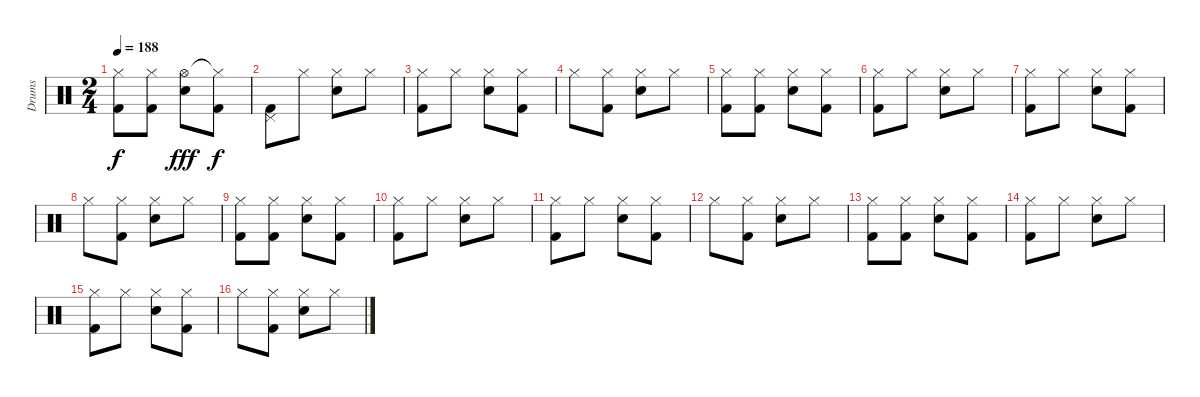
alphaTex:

\track ("Drums" "Drums") {instrument percussion}
\staff {score}
\articulation defaults
\ts (2 4)
\tempo 188
\clef neutral
\ks c
("Hi-Hat (closed)" "Kick (hit) 2").8{dy f} ("Hi-Hat (closed)" "Kick (hit) 2").8 ("Hi-Hat (open)" "Snare (hit) 2").8{dy fff} ("Hi-Hat (closed)"{t} "Kick (hit) 2").8{dy f} |
("Pedal Hi-Hat (hit)" "Kick (hit) 2").8 "Hi-Hat (closed)".8 ("Hi-Hat (closed)" "Snare (hit) 2").8 "Hi-Hat (closed)".8 |
("Hi-Hat (closed)" "Kick (hit) 2").8 "Hi-Hat (closed)".8 ("Hi-Hat (closed)" "Snare (hit) 2").8 ("Hi-Hat (closed)" "Kick (hit) 2").8 |
"Hi-Hat (closed)".8 ("Hi-Hat (closed)" "Kick (hit) 2").8 ("Hi-Hat (closed)" "Snare (hit) 2").8 "Hi-Hat (closed)".8 |
("Hi-Hat (closed)" "Kick (hit) 2").8 ("Hi-Hat (closed)" "Kick (hit) 2").8 ("Hi-Hat (closed)" "Snare (hit) 2").8 ("Hi-Hat (closed)" "Kick (hit) 2").8 |
("Hi-Hat (closed)" "Kick (hit) 2").8 "Hi-Hat (closed)".8 ("Hi-Hat (closed)" "Snare (hit) 2").8 "Hi-Hat (closed)".8 |
("Hi-Hat (closed)" "Kick (hit) 2").8 "Hi-Hat (closed)".8 ("Hi-Hat (closed)" "Snare (hit) 2").8 ("Hi-Hat (closed)" "Kick (hit) 2").8 |
"Hi-Hat (closed)".8 ("Hi-Hat (closed)" "Kick (hit) 2").8 ("Hi-Hat (closed)" "Snare (hit) 2").8 "Hi-Hat (closed)".8 |
("Hi-Hat (closed)" "Kick (hit) 2").8 ("Hi-Hat (closed)" "Kick (hit) 2").8 ("Hi-Hat (closed)" "Snare (hit) 2").8 ("Hi-Hat (closed)" "Kick (hit) 2").8 |
("Hi-Hat (closed)" "Kick (hit) 2").8 "Hi-Hat (closed)".8 ("Hi-Hat (closed)" "Snare (hit) 2").8 "Hi-Hat (closed)".8 |
("Hi-Hat (closed)" "Kick (hit) 2").8 "Hi-Hat (closed)".8 ("Hi-Hat (closed)" "Snare (hit) 2").8 ("Hi-Hat (closed)" "Kick (hit) 2").8 |
"Hi-Hat (closed)".8 ("Hi-Hat (closed)" "Kick (hit) 2").8 ("Hi-Hat (closed)" "Snare (hit) 2").8 "Hi-Hat (closed)".8 |
("Hi-Hat (closed)" "Kick (hit) 2").8 ("Hi-Hat (closed)" "Kick (hit) 2").8 ("Hi-Hat (closed)" "Snare (hit) 2").8 ("Hi-Hat (closed)" "Kick (hit) 2").8 |
("Hi-Hat (closed)" "Kick (hit) 2").8 "Hi-Hat (closed)".8 ("Hi-Hat (closed)" "Snare (hit) 2").8 "Hi-Hat (closed)".8 |
("Hi-Hat (closed)" "Kick (hit) 2").8 "Hi-Hat (closed)".8 ("Hi-Hat (closed)" "Snare (hit) 2").8 ("Hi-Hat (closed)" "Kick (hit) 2").8 |
"Hi-Hat (closed)".8 ("Hi-Hat (closed)" "Kick (hit) 2").8 ("Hi-Hat (closed)" "Snare (hit) 2").8 "Hi-Hat (closed)".8
